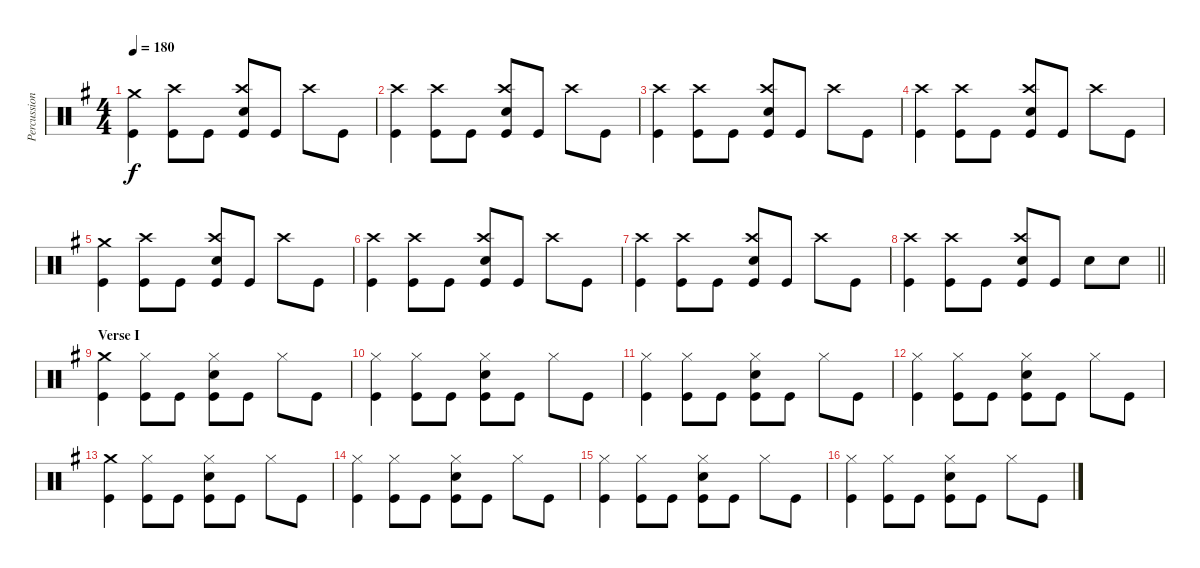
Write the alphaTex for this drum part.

\track ("Percussion" "Percussion") {instrument percussion}
\staff {score}
\articulation defaults
\ts (4 4)
\tempo 180
\clef neutral
\ks g
("Crash medium (hit)" "Kick (hit)").4{dy f} ("Crash high (hit)" "Kick (hit)").8 "Kick (hit)".8 ("Crash high (hit)" "Electric Snare (hit)" "Kick (hit)").8 "Kick (hit)".8 "Crash high (hit)".8 "Kick (hit)".8 |
("Crash high (hit)" "Kick (hit)").4 ("Crash high (hit)" "Kick (hit)").8 "Kick (hit)".8 ("Crash high (hit)" "Electric Snare (hit)" "Kick (hit)").8 "Kick (hit)".8 "Crash high (hit)".8 "Kick (hit)".8 |
("Crash high (hit)" "Kick (hit)").4 ("Crash high (hit)" "Kick (hit)").8 "Kick (hit)".8 ("Crash high (hit)" "Electric Snare (hit)" "Kick (hit)").8 "Kick (hit)".8 "Crash high (hit)".8 "Kick (hit)".8 |
("Crash high (hit)" "Kick (hit)").4 ("Crash high (hit)" "Kick (hit)").8 "Kick (hit)".8 ("Crash high (hit)" "Electric Snare (hit)" "Kick (hit)").8 "Kick (hit)".8 "Crash high (hit)".8 "Kick (hit)".8 |
("Crash medium (hit)" "Kick (hit)").4 ("Crash high (hit)" "Kick (hit)").8 "Kick (hit)".8 ("Crash high (hit)" "Electric Snare (hit)" "Kick (hit)").8 "Kick (hit)".8 "Crash high (hit)".8 "Kick (hit)".8 |
("Crash high (hit)" "Kick (hit)").4 ("Crash high (hit)" "Kick (hit)").8 "Kick (hit)".8 ("Crash high (hit)" "Electric Snare (hit)" "Kick (hit)").8 "Kick (hit)".8 "Crash high (hit)".8 "Kick (hit)".8 |
("Crash high (hit)" "Kick (hit)").4 ("Crash high (hit)" "Kick (hit)").8 "Kick (hit)".8 ("Crash high (hit)" "Electric Snare (hit)" "Kick (hit)").8 "Kick (hit)".8 "Crash high (hit)".8 "Kick (hit)".8 |
\barLineRight lightlight
("Crash high (hit)" "Kick (hit)").4 ("Crash high (hit)" "Kick (hit)").8 "Kick (hit)".8 ("Crash high (hit)" "Electric Snare (hit)" "Kick (hit)").8 "Kick (hit)".8 "Electric Snare (hit)".8 "Electric Snare (hit)".8 |
\section ("" "Verse I")
("Crash medium (hit)" "Kick (hit)").4 ("Hi-Hat (closed)" "Kick (hit)").8 "Kick (hit)".8 ("Hi-Hat (closed)" "Electric Snare (hit)" "Kick (hit)").8 "Kick (hit)".8 "Hi-Hat (closed)".8 "Kick (hit)".8 |
("Hi-Hat (closed)" "Kick (hit)").4 ("Hi-Hat (closed)" "Kick (hit)").8 "Kick (hit)".8 ("Hi-Hat (closed)" "Electric Snare (hit)" "Kick (hit)").8 "Kick (hit)".8 "Hi-Hat (closed)".8 "Kick (hit)".8 |
("Hi-Hat (closed)" "Kick (hit)").4 ("Hi-Hat (closed)" "Kick (hit)").8 "Kick (hit)".8 ("Hi-Hat (closed)" "Electric Snare (hit)" "Kick (hit)").8 "Kick (hit)".8 "Hi-Hat (closed)".8 "Kick (hit)".8 |
("Hi-Hat (closed)" "Kick (hit)").4 ("Hi-Hat (closed)" "Kick (hit)").8 "Kick (hit)".8 ("Hi-Hat (closed)" "Electric Snare (hit)" "Kick (hit)").8 "Kick (hit)".8 "Hi-Hat (closed)".8 "Kick (hit)".8 |
("Crash medium (hit)" "Kick (hit)").4 ("Hi-Hat (closed)" "Kick (hit)").8 "Kick (hit)".8 ("Hi-Hat (closed)" "Electric Snare (hit)" "Kick (hit)").8 "Kick (hit)".8 "Hi-Hat (closed)".8 "Kick (hit)".8 |
("Hi-Hat (closed)" "Kick (hit)").4 ("Hi-Hat (closed)" "Kick (hit)").8 "Kick (hit)".8 ("Hi-Hat (closed)" "Electric Snare (hit)" "Kick (hit)").8 "Kick (hit)".8 "Hi-Hat (closed)".8 "Kick (hit)".8 |
("Hi-Hat (closed)" "Kick (hit)").4 ("Hi-Hat (closed)" "Kick (hit)").8 "Kick (hit)".8 ("Hi-Hat (closed)" "Electric Snare (hit)" "Kick (hit)").8 "Kick (hit)".8 "Hi-Hat (closed)".8 "Kick (hit)".8 |
("Hi-Hat (closed)" "Kick (hit)").4 ("Hi-Hat (closed)" "Kick (hit)").8 "Kick (hit)".8 ("Hi-Hat (closed)" "Electric Snare (hit)" "Kick (hit)").8 "Kick (hit)".8 "Hi-Hat (closed)".8 "Kick (hit)".8
